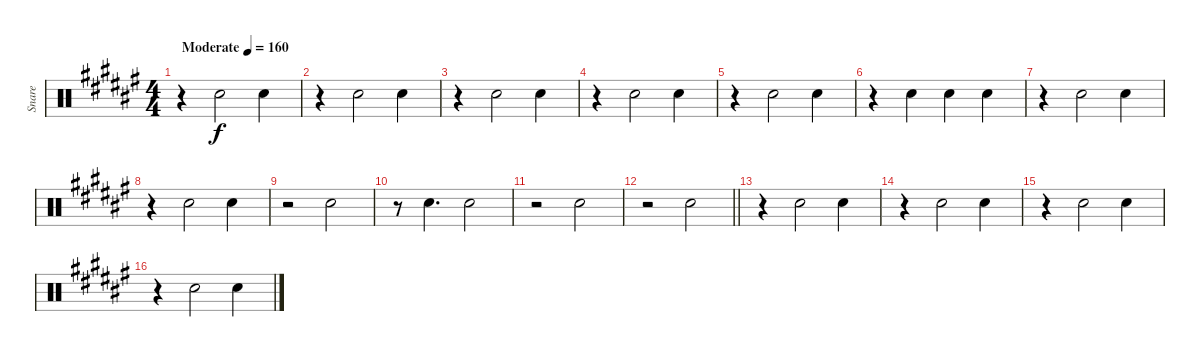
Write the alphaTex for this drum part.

\track ("Snare" "Snare") {instrument percussion}
\staff {score}
\articulation defaults
\ts (4 4)
\tempo (160 "Moderate")
\clef neutral
\ks d#minor
r.4{dy f} "Electric Snare (hit)".2 "Electric Snare (hit)".4 |
r.4 "Electric Snare (hit)".2 "Electric Snare (hit)".4 |
r.4 "Electric Snare (hit)".2 "Electric Snare (hit)".4 |
r.4 "Electric Snare (hit)".2 "Electric Snare (hit)".4 |
r.4 "Electric Snare (hit)".2 "Electric Snare (hit)".4 |
r.4 "Electric Snare (hit)".4 "Electric Snare (hit)".4 "Electric Snare (hit)".4 |
r.4 "Electric Snare (hit)".2 "Electric Snare (hit)".4 |
r.4 "Electric Snare (hit)".2 "Electric Snare (hit)".4 |
r.2 "Electric Snare (hit)".2 |
r.8 "Electric Snare (hit)".4{d} "Electric Snare (hit)".2 |
r.2 "Electric Snare (hit)".2 |
\barLineRight lightlight
r.2 "Electric Snare (hit)".2 |
r.4 "Electric Snare (hit)".2 "Electric Snare (hit)".4 |
r.4 "Electric Snare (hit)".2 "Electric Snare (hit)".4 |
r.4 "Electric Snare (hit)".2 "Electric Snare (hit)".4 |
r.4 "Electric Snare (hit)".2 "Electric Snare (hit)".4
